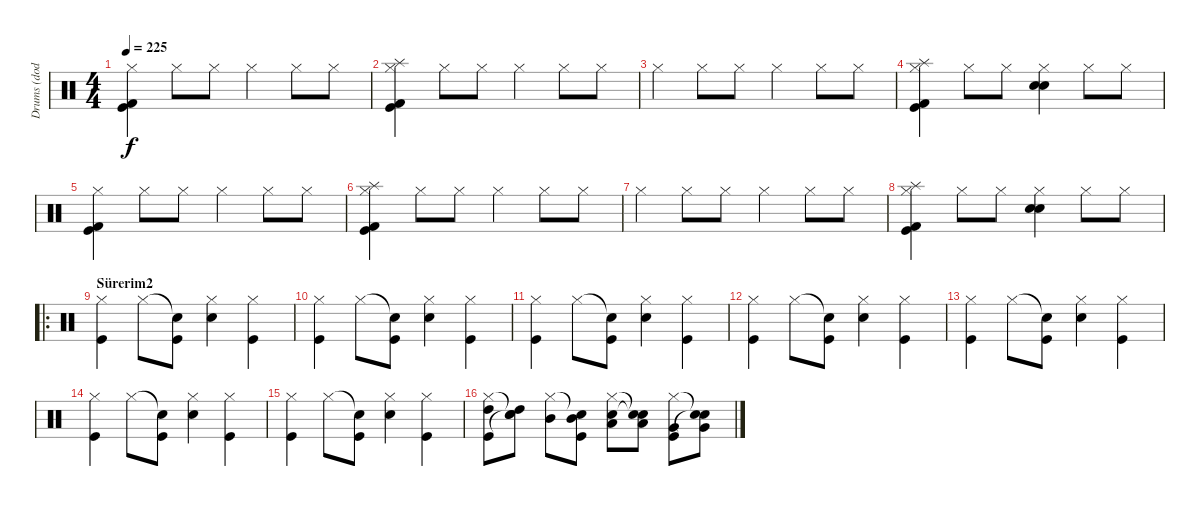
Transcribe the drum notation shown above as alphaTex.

\track ("Drums (dodo)" "Drums (dod") {instrument percussion}
\staff {score}
\articulation defaults
\ts (4 4)
\tempo 225
\clef neutral
\ks c
("Hi-Hat (closed)" "Kick (hit)" "Kick (hit) 2").4{dy f} "Hi-Hat (closed)".8 "Hi-Hat (closed)".8 "Hi-Hat (closed)".4 "Hi-Hat (closed)".8 "Hi-Hat (closed)".8 |
("Hi-Hat (closed)" "Splash (hit)" "Kick (hit)" "Kick (hit) 2").4 "Hi-Hat (closed)".8 "Hi-Hat (closed)".8 "Hi-Hat (closed)".4 "Hi-Hat (closed)".8 "Hi-Hat (closed)".8 |
"Hi-Hat (closed)".4 "Hi-Hat (closed)".8 "Hi-Hat (closed)".8 "Hi-Hat (closed)".4 "Hi-Hat (closed)".8 "Hi-Hat (closed)".8 |
("Hi-Hat (closed)" "Splash (hit)" "Kick (hit)" "Kick (hit) 2").4 "Hi-Hat (closed)".8 "Hi-Hat (closed)".8 ("Hi-Hat (closed)" "Electric Snare (hit)" "Snare (hit) 2").4 "Hi-Hat (closed)".8 "Hi-Hat (closed)".8 |
("Hi-Hat (closed)" "Kick (hit)" "Kick (hit) 2").4 "Hi-Hat (closed)".8 "Hi-Hat (closed)".8 "Hi-Hat (closed)".4 "Hi-Hat (closed)".8 "Hi-Hat (closed)".8 |
("Hi-Hat (closed)" "Splash (hit)" "Kick (hit)" "Kick (hit) 2").4 "Hi-Hat (closed)".8 "Hi-Hat (closed)".8 "Hi-Hat (closed)".4 "Hi-Hat (closed)".8 "Hi-Hat (closed)".8 |
"Hi-Hat (closed)".4 "Hi-Hat (closed)".8 "Hi-Hat (closed)".8 "Hi-Hat (closed)".4 "Hi-Hat (closed)".8 "Hi-Hat (closed)".8 |
("Hi-Hat (closed)" "Splash (hit)" "Kick (hit)" "Kick (hit) 2").4 "Hi-Hat (closed)".8 "Hi-Hat (closed)".8 ("Hi-Hat (closed)" "Electric Snare (hit)" "Snare (hit) 2").4 "Hi-Hat (closed)".8 "Hi-Hat (closed)".8 |
\ro
\section ("" "Sürerim2")
("Hi-Hat (closed)" "Kick (hit)").4 "Hi-Hat (closed)".8 ("Snare (hit)"{t} "Kick (hit)").8 ("Hi-Hat (closed)" "Electric Snare (hit)").4 ("Hi-Hat (closed)" "Kick (hit)").4 |
("Hi-Hat (closed)" "Kick (hit)").4 "Hi-Hat (closed)".8 ("Snare (hit)"{t} "Kick (hit)").8 ("Hi-Hat (closed)" "Electric Snare (hit)").4 ("Hi-Hat (closed)" "Kick (hit)").4 |
("Hi-Hat (closed)" "Kick (hit)").4 "Hi-Hat (closed)".8 ("Snare (hit)"{t} "Kick (hit)").8 ("Hi-Hat (closed)" "Electric Snare (hit)").4 ("Hi-Hat (closed)" "Kick (hit)").4 |
("Hi-Hat (closed)" "Kick (hit)").4 "Hi-Hat (closed)".8 ("Snare (hit)"{t} "Kick (hit)").8 ("Hi-Hat (closed)" "Electric Snare (hit)").4 ("Hi-Hat (closed)" "Kick (hit)").4 |
("Hi-Hat (closed)" "Kick (hit)").4 "Hi-Hat (closed)".8 ("Snare (hit)"{t} "Kick (hit)").8 ("Hi-Hat (closed)" "Electric Snare (hit)").4 ("Hi-Hat (closed)" "Kick (hit)").4 |
("Hi-Hat (closed)" "Kick (hit)").4 "Hi-Hat (closed)".8 ("Snare (hit)"{t} "Kick (hit)").8 ("Hi-Hat (closed)" "Electric Snare (hit)").4 ("Hi-Hat (closed)" "Kick (hit)").4 |
("Hi-Hat (closed)" "Kick (hit)").4 "Hi-Hat (closed)".8 ("Snare (hit)"{t} "Kick (hit)").8 ("Hi-Hat (closed)" "Electric Snare (hit)").4 ("Hi-Hat (closed)" "Kick (hit)").4 |
("Hi-Hat (closed)" "Kick (hit)" "High Tom (hit)").8 ("Snare (hit)"{t} "Snare (hit)"{t} "High Tom (hit)").8 ("Hi-Hat (closed)" "Mid Tom (hit)").8 ("Snare (hit)"{t} "Kick (hit)" "Mid Tom (hit)").8 ("Hi-Hat (closed)" "Electric Snare (hit)" "Low Tom (hit)").8 ("Snare (hit)"{t} "Snare (hit)"{t} "Low Tom (hit)").8 ("Hi-Hat (closed)" "Kick (hit)" "Very Low Tom (hit)").8 ("Snare (hit)"{t} "Snare (hit)"{t} "Very Low Tom (hit)").8
